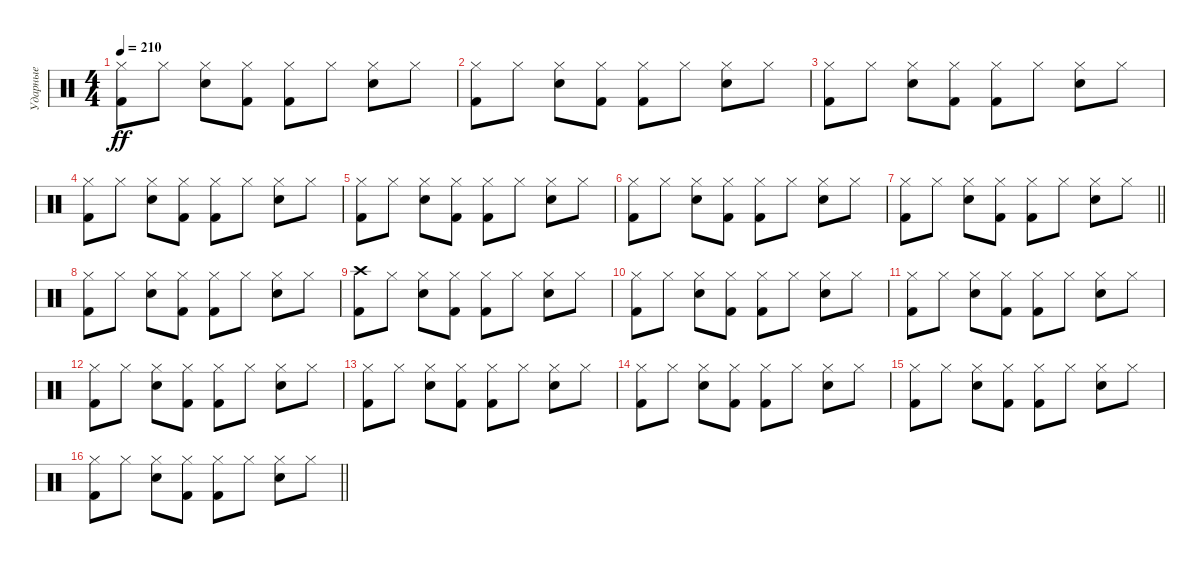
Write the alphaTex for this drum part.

\track ("Ударные" "Ударные") {instrument percussion}
\staff {score}
\articulation defaults
\ts (4 4)
\tempo 210
\clef neutral
\ks c
("Hi-Hat (closed)" "Kick (hit) 2").8{dy ff} "Hi-Hat (closed)".8 ("Hi-Hat (closed)" "Snare (hit) 2").8 ("Hi-Hat (closed)" "Kick (hit) 2").8 ("Hi-Hat (closed)" "Kick (hit) 2").8 "Hi-Hat (closed)".8 ("Hi-Hat (closed)" "Snare (hit) 2").8 "Hi-Hat (closed)".8 |
("Hi-Hat (closed)" "Kick (hit) 2").8 "Hi-Hat (closed)".8 ("Hi-Hat (closed)" "Snare (hit) 2").8 ("Hi-Hat (closed)" "Kick (hit) 2").8 ("Hi-Hat (closed)" "Kick (hit) 2").8 "Hi-Hat (closed)".8 ("Hi-Hat (closed)" "Snare (hit) 2").8 "Hi-Hat (closed)".8 |
("Hi-Hat (closed)" "Kick (hit) 2").8 "Hi-Hat (closed)".8 ("Hi-Hat (closed)" "Snare (hit) 2").8 ("Hi-Hat (closed)" "Kick (hit) 2").8 ("Hi-Hat (closed)" "Kick (hit) 2").8 "Hi-Hat (closed)".8 ("Hi-Hat (closed)" "Snare (hit) 2").8 "Hi-Hat (closed)".8 |
("Hi-Hat (closed)" "Kick (hit) 2").8 "Hi-Hat (closed)".8 ("Hi-Hat (closed)" "Snare (hit) 2").8 ("Hi-Hat (closed)" "Kick (hit) 2").8 ("Hi-Hat (closed)" "Kick (hit) 2").8 "Hi-Hat (closed)".8 ("Hi-Hat (closed)" "Snare (hit) 2").8 "Hi-Hat (closed)".8 |
("Hi-Hat (closed)" "Kick (hit) 2").8 "Hi-Hat (closed)".8 ("Hi-Hat (closed)" "Snare (hit) 2").8 ("Hi-Hat (closed)" "Kick (hit) 2").8 ("Hi-Hat (closed)" "Kick (hit) 2").8 "Hi-Hat (closed)".8 ("Hi-Hat (closed)" "Snare (hit) 2").8 "Hi-Hat (closed)".8 |
("Hi-Hat (closed)" "Kick (hit) 2").8 "Hi-Hat (closed)".8 ("Hi-Hat (closed)" "Snare (hit) 2").8 ("Hi-Hat (closed)" "Kick (hit) 2").8 ("Hi-Hat (closed)" "Kick (hit) 2").8 "Hi-Hat (closed)".8 ("Hi-Hat (closed)" "Snare (hit) 2").8 "Hi-Hat (closed)".8 |
\barLineRight lightlight
("Hi-Hat (closed)" "Kick (hit) 2").8 "Hi-Hat (closed)".8 ("Hi-Hat (closed)" "Snare (hit) 2").8 ("Hi-Hat (closed)" "Kick (hit) 2").8 ("Hi-Hat (closed)" "Kick (hit) 2").8 "Hi-Hat (closed)".8 ("Hi-Hat (closed)" "Snare (hit) 2").8 "Hi-Hat (closed)".8 |
("Hi-Hat (closed)" "Kick (hit) 2").8 "Hi-Hat (closed)".8 ("Hi-Hat (closed)" "Snare (hit) 2").8 ("Hi-Hat (closed)" "Kick (hit) 2").8 ("Hi-Hat (closed)" "Kick (hit) 2").8 "Hi-Hat (closed)".8 ("Hi-Hat (closed)" "Snare (hit) 2").8 "Hi-Hat (closed)".8 |
("Crash high (hit)" "Kick (hit) 2").8 "Hi-Hat (closed)".8 ("Hi-Hat (closed)" "Snare (hit) 2").8 ("Hi-Hat (closed)" "Kick (hit) 2").8 ("Hi-Hat (closed)" "Kick (hit) 2").8 "Hi-Hat (closed)".8 ("Hi-Hat (closed)" "Snare (hit) 2").8 "Hi-Hat (closed)".8 |
("Hi-Hat (closed)" "Kick (hit) 2").8 "Hi-Hat (closed)".8 ("Hi-Hat (closed)" "Snare (hit) 2").8 ("Hi-Hat (closed)" "Kick (hit) 2").8 ("Hi-Hat (closed)" "Kick (hit) 2").8 "Hi-Hat (closed)".8 ("Hi-Hat (closed)" "Snare (hit) 2").8 "Hi-Hat (closed)".8 |
("Hi-Hat (closed)" "Kick (hit) 2").8 "Hi-Hat (closed)".8 ("Hi-Hat (closed)" "Snare (hit) 2").8 ("Hi-Hat (closed)" "Kick (hit) 2").8 ("Hi-Hat (closed)" "Kick (hit) 2").8 "Hi-Hat (closed)".8 ("Hi-Hat (closed)" "Snare (hit) 2").8 "Hi-Hat (closed)".8 |
("Hi-Hat (closed)" "Kick (hit) 2").8 "Hi-Hat (closed)".8 ("Hi-Hat (closed)" "Snare (hit) 2").8 ("Hi-Hat (closed)" "Kick (hit) 2").8 ("Hi-Hat (closed)" "Kick (hit) 2").8 "Hi-Hat (closed)".8 ("Hi-Hat (closed)" "Snare (hit) 2").8 "Hi-Hat (closed)".8 |
("Hi-Hat (closed)" "Kick (hit) 2").8 "Hi-Hat (closed)".8 ("Hi-Hat (closed)" "Snare (hit) 2").8 ("Hi-Hat (closed)" "Kick (hit) 2").8 ("Hi-Hat (closed)" "Kick (hit) 2").8 "Hi-Hat (closed)".8 ("Hi-Hat (closed)" "Snare (hit) 2").8 "Hi-Hat (closed)".8 |
("Hi-Hat (closed)" "Kick (hit) 2").8 "Hi-Hat (closed)".8 ("Hi-Hat (closed)" "Snare (hit) 2").8 ("Hi-Hat (closed)" "Kick (hit) 2").8 ("Hi-Hat (closed)" "Kick (hit) 2").8 "Hi-Hat (closed)".8 ("Hi-Hat (closed)" "Snare (hit) 2").8 "Hi-Hat (closed)".8 |
("Hi-Hat (closed)" "Kick (hit) 2").8 "Hi-Hat (closed)".8 ("Hi-Hat (closed)" "Snare (hit) 2").8 ("Hi-Hat (closed)" "Kick (hit) 2").8 ("Hi-Hat (closed)" "Kick (hit) 2").8 "Hi-Hat (closed)".8 ("Hi-Hat (closed)" "Snare (hit) 2").8 "Hi-Hat (closed)".8 |
\barLineRight lightlight
("Hi-Hat (closed)" "Kick (hit) 2").8 "Hi-Hat (closed)".8 ("Hi-Hat (closed)" "Snare (hit) 2").8 ("Hi-Hat (closed)" "Kick (hit) 2").8 ("Hi-Hat (closed)" "Kick (hit) 2").8 "Hi-Hat (closed)".8 ("Hi-Hat (closed)" "Snare (hit) 2").8 "Hi-Hat (closed)".8
